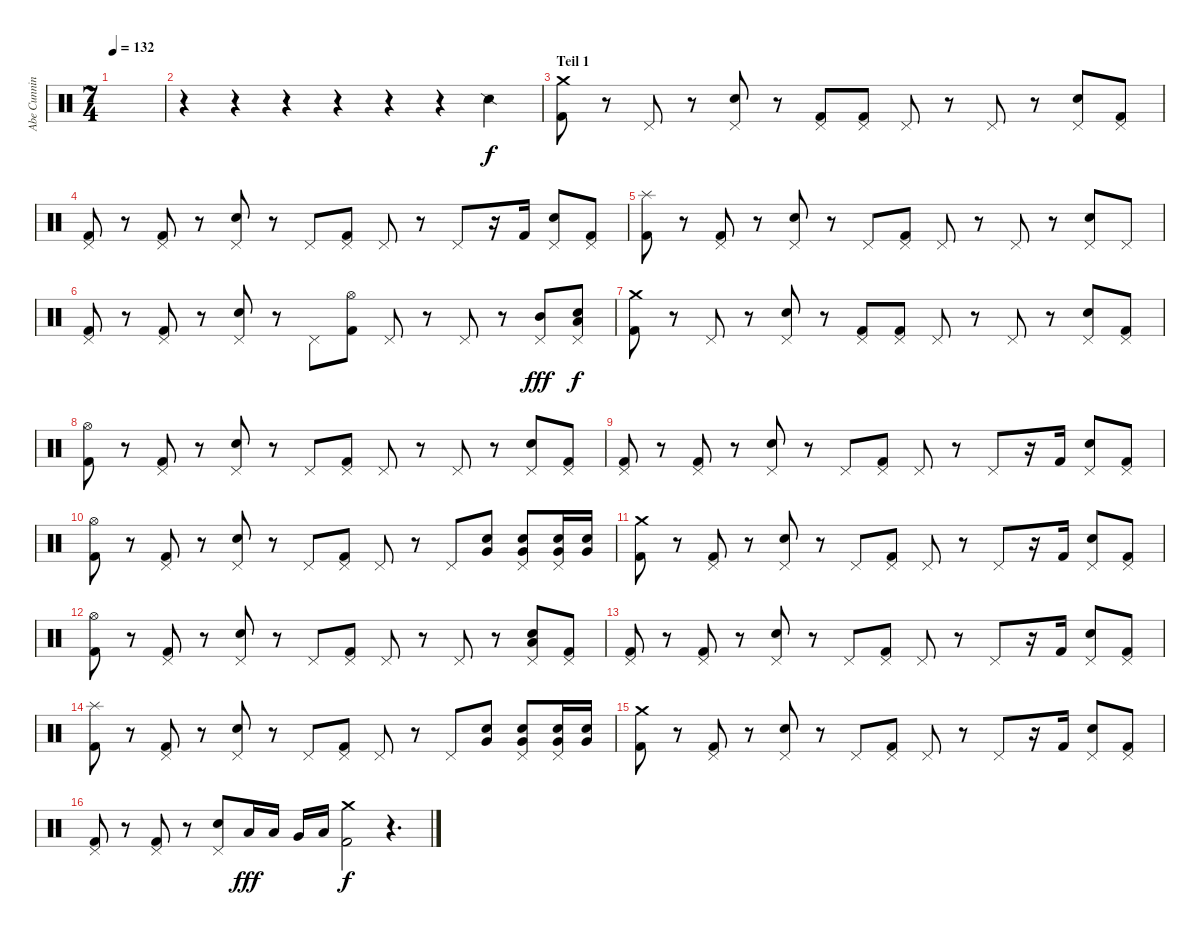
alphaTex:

\track ("Abe Cunningham" "Abe Cunnin") {instrument percussion}
\staff {score}
\articulation defaults
\ts (7 4)
\tempo 132
\clef neutral
\ks c
|
r.4 r.4 r.4 r.4 r.4 r.4 "Snare (side stick) 2".4 |
\section ("" "Teil 1")
("Crash medium (hit)" "Kick (hit) 2").8 r.8 "Pedal Hi-Hat (hit)".8 r.8 ("Pedal Hi-Hat (hit)" "Electric Snare (hit)").8 r.8 ("Pedal Hi-Hat (hit)" "Kick (hit) 2").8 ("Pedal Hi-Hat (hit)" "Kick (hit) 2").8 "Pedal Hi-Hat (hit)".8 r.8 "Pedal Hi-Hat (hit)".8 r.8 ("Pedal Hi-Hat (hit)" "Electric Snare (hit)").8 ("Pedal Hi-Hat (hit)" "Kick (hit) 2").8 |
("Pedal Hi-Hat (hit)" "Kick (hit) 2").8 r.8 ("Pedal Hi-Hat (hit)" "Kick (hit) 2").8 r.8 ("Pedal Hi-Hat (hit)" "Electric Snare (hit)").8 r.8 "Pedal Hi-Hat (hit)".8 ("Pedal Hi-Hat (hit)" "Kick (hit) 2").8 "Pedal Hi-Hat (hit)".8 r.8 "Pedal Hi-Hat (hit)".8 r.16 "Kick (hit) 2".16 ("Pedal Hi-Hat (hit)" "Electric Snare (hit)").8 ("Pedal Hi-Hat (hit)" "Kick (hit) 2").8 |
("Splash (hit)" "Kick (hit) 2").8 r.8 ("Pedal Hi-Hat (hit)" "Kick (hit) 2").8 r.8 ("Pedal Hi-Hat (hit)" "Electric Snare (hit)").8 r.8 "Pedal Hi-Hat (hit)".8 ("Pedal Hi-Hat (hit)" "Kick (hit) 2").8 "Pedal Hi-Hat (hit)".8 r.8 "Pedal Hi-Hat (hit)".8 r.8 ("Pedal Hi-Hat (hit)" "Electric Snare (hit)").8 "Pedal Hi-Hat (hit)".8 |
("Pedal Hi-Hat (hit)" "Kick (hit) 2").8 r.8 ("Pedal Hi-Hat (hit)" "Kick (hit) 2").8 r.8 ("Pedal Hi-Hat (hit)" "Electric Snare (hit)").8 r.8 "Pedal Hi-Hat (hit)".8 ("Hi-Hat (open)" "Kick (hit) 2").8 "Pedal Hi-Hat (hit)".8 r.8 "Pedal Hi-Hat (hit)".8 r.8 ("Pedal Hi-Hat (hit)" "Mid Tom (hit)").8{dy fff} ("Pedal Hi-Hat (hit)" "Electric Snare (hit)" "Low Tom (hit)").8{dy f} |
("Crash medium (hit)" "Kick (hit) 2").8 r.8 "Pedal Hi-Hat (hit)".8 r.8 ("Pedal Hi-Hat (hit)" "Electric Snare (hit)").8 r.8 ("Pedal Hi-Hat (hit)" "Kick (hit) 2").8 ("Pedal Hi-Hat (hit)" "Kick (hit) 2").8 "Pedal Hi-Hat (hit)".8 r.8 "Pedal Hi-Hat (hit)".8 r.8 ("Pedal Hi-Hat (hit)" "Electric Snare (hit)").8 ("Pedal Hi-Hat (hit)" "Kick (hit) 2").8 |
("Hi-Hat (open)" "Kick (hit) 2").8 r.8 ("Pedal Hi-Hat (hit)" "Kick (hit) 2").8 r.8 ("Pedal Hi-Hat (hit)" "Electric Snare (hit)").8 r.8 "Pedal Hi-Hat (hit)".8 ("Pedal Hi-Hat (hit)" "Kick (hit) 2").8 "Pedal Hi-Hat (hit)".8 r.8 "Pedal Hi-Hat (hit)".8 r.8 ("Pedal Hi-Hat (hit)" "Electric Snare (hit)").8 ("Pedal Hi-Hat (hit)" "Kick (hit) 2").8 |
("Pedal Hi-Hat (hit)" "Kick (hit) 2").8 r.8 ("Pedal Hi-Hat (hit)" "Kick (hit) 2").8 r.8 ("Pedal Hi-Hat (hit)" "Electric Snare (hit)").8 r.8 "Pedal Hi-Hat (hit)".8 ("Pedal Hi-Hat (hit)" "Kick (hit) 2").8 "Pedal Hi-Hat (hit)".8 r.8 "Pedal Hi-Hat (hit)".8 r.16 "Kick (hit) 2".16 ("Pedal Hi-Hat (hit)" "Electric Snare (hit)").8 ("Pedal Hi-Hat (hit)" "Kick (hit) 2").8 |
("Hi-Hat (open)" "Kick (hit) 2").8 r.8 ("Pedal Hi-Hat (hit)" "Kick (hit) 2").8 r.8 ("Pedal Hi-Hat (hit)" "Electric Snare (hit)").8 r.8 "Pedal Hi-Hat (hit)".8 ("Pedal Hi-Hat (hit)" "Kick (hit) 2").8 "Pedal Hi-Hat (hit)".8 r.8 "Pedal Hi-Hat (hit)".8 ("Electric Snare (hit)" "Very Low Tom (hit)").8 ("Pedal Hi-Hat (hit)" "Electric Snare (hit)" "Very Low Tom (hit)").8 ("Pedal Hi-Hat (hit)" "Electric Snare (hit)" "Very Low Tom (hit)").16 ("Electric Snare (hit)" "Very Low Tom (hit)").16 |
("Crash medium (hit)" "Kick (hit) 2").8 r.8 ("Pedal Hi-Hat (hit)" "Kick (hit) 2").8 r.8 ("Pedal Hi-Hat (hit)" "Electric Snare (hit)").8 r.8 "Pedal Hi-Hat (hit)".8 ("Pedal Hi-Hat (hit)" "Kick (hit) 2").8 "Pedal Hi-Hat (hit)".8 r.8 "Pedal Hi-Hat (hit)".8 r.16 "Kick (hit) 2".16 ("Pedal Hi-Hat (hit)" "Electric Snare (hit)").8 ("Pedal Hi-Hat (hit)" "Kick (hit) 2").8 |
("Hi-Hat (open)" "Kick (hit) 2").8 r.8 ("Pedal Hi-Hat (hit)" "Kick (hit) 2").8 r.8 ("Pedal Hi-Hat (hit)" "Electric Snare (hit)").8 r.8 "Pedal Hi-Hat (hit)".8 ("Pedal Hi-Hat (hit)" "Kick (hit) 2").8 "Pedal Hi-Hat (hit)".8 r.8 "Pedal Hi-Hat (hit)".8 r.8 ("Pedal Hi-Hat (hit)" "Electric Snare (hit)" "Low Floor Tom (hit)").8 ("Pedal Hi-Hat (hit)" "Kick (hit) 2").8 |
("Pedal Hi-Hat (hit)" "Kick (hit) 2").8 r.8 ("Pedal Hi-Hat (hit)" "Kick (hit) 2").8 r.8 ("Pedal Hi-Hat (hit)" "Electric Snare (hit)").8 r.8 "Pedal Hi-Hat (hit)".8 ("Pedal Hi-Hat (hit)" "Kick (hit) 2").8 "Pedal Hi-Hat (hit)".8 r.8 "Pedal Hi-Hat (hit)".8 r.16 "Kick (hit) 2".16 ("Pedal Hi-Hat (hit)" "Electric Snare (hit)").8 ("Pedal Hi-Hat (hit)" "Kick (hit) 2").8 |
("Splash (hit)" "Kick (hit) 2").8 r.8 ("Pedal Hi-Hat (hit)" "Kick (hit) 2").8 r.8 ("Pedal Hi-Hat (hit)" "Electric Snare (hit)").8 r.8 "Pedal Hi-Hat (hit)".8 ("Pedal Hi-Hat (hit)" "Kick (hit) 2").8 "Pedal Hi-Hat (hit)".8 r.8 "Pedal Hi-Hat (hit)".8 ("Electric Snare (hit)" "Very Low Tom (hit)").8 ("Pedal Hi-Hat (hit)" "Electric Snare (hit)" "Very Low Tom (hit)").8 ("Pedal Hi-Hat (hit)" "Electric Snare (hit)" "Very Low Tom (hit)").16 ("Electric Snare (hit)" "Very Low Tom (hit)").16 |
("Crash medium (hit)" "Kick (hit) 2").8 r.8 ("Pedal Hi-Hat (hit)" "Kick (hit) 2").8 r.8 ("Pedal Hi-Hat (hit)" "Electric Snare (hit)").8 r.8 "Pedal Hi-Hat (hit)".8 ("Pedal Hi-Hat (hit)" "Kick (hit) 2").8 "Pedal Hi-Hat (hit)".8 r.8 "Pedal Hi-Hat (hit)".8 r.16 "Kick (hit) 2".16 ("Pedal Hi-Hat (hit)" "Electric Snare (hit)").8 ("Pedal Hi-Hat (hit)" "Kick (hit) 2").8 |
("Pedal Hi-Hat (hit)" "Kick (hit) 2").8 r.8 ("Pedal Hi-Hat (hit)" "Kick (hit) 2").8 r.8 ("Pedal Hi-Hat (hit)" "Electric Snare (hit)").8 "Low Tom (hit)".16{dy fff} "Low Tom (hit)".16 "Very Low Tom (hit)".16 "Low Floor Tom (hit)".16 ("Crash medium (hit)" "Kick (hit) 2").2{dy f} r.4{d}
